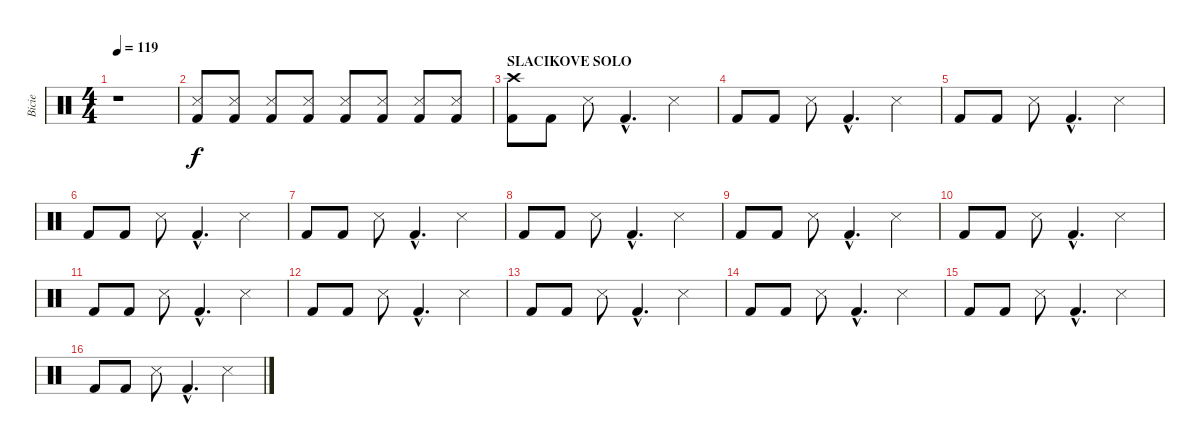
\track ("Bicie" "Bicie") {instrument percussion}
\staff {score}
\articulation defaults
\ts (4 4)
\tempo 119
\clef neutral
\ks c
r.1{dy f} |
("Metronome (hit)" "Kick (hit) 2").8 ("Metronome (hit)" "Kick (hit) 2").8 ("Metronome (hit)" "Kick (hit) 2").8 ("Metronome (hit)" "Kick (hit) 2").8 ("Metronome (hit)" "Kick (hit) 2").8 ("Metronome (hit)" "Kick (hit) 2").8 ("Metronome (hit)" "Kick (hit) 2").8 ("Metronome (hit)" "Kick (hit) 2").8 |
\section ("" "SLACIKOVE SOLO")
("Kick (hit) 2" "Crash high (hit)").8 "Kick (hit) 2".8 "Metronome (hit)".8 "Kick (hit) 2"{hac}.4{d} "Metronome (hit)".4 |
"Kick (hit) 2".8 "Kick (hit) 2".8 "Metronome (hit)".8 "Kick (hit) 2"{hac}.4{d} "Metronome (hit)".4 |
"Kick (hit) 2".8 "Kick (hit) 2".8 "Metronome (hit)".8 "Kick (hit) 2"{hac}.4{d} "Metronome (hit)".4 |
"Kick (hit) 2".8 "Kick (hit) 2".8 "Metronome (hit)".8 "Kick (hit) 2"{hac}.4{d} "Metronome (hit)".4 |
"Kick (hit) 2".8 "Kick (hit) 2".8 "Metronome (hit)".8 "Kick (hit) 2"{hac}.4{d} "Metronome (hit)".4 |
"Kick (hit) 2".8 "Kick (hit) 2".8 "Metronome (hit)".8 "Kick (hit) 2"{hac}.4{d} "Metronome (hit)".4 |
"Kick (hit) 2".8 "Kick (hit) 2".8 "Metronome (hit)".8 "Kick (hit) 2"{hac}.4{d} "Metronome (hit)".4 |
"Kick (hit) 2".8 "Kick (hit) 2".8 "Metronome (hit)".8 "Kick (hit) 2"{hac}.4{d} "Metronome (hit)".4 |
"Kick (hit) 2".8 "Kick (hit) 2".8 "Metronome (hit)".8 "Kick (hit) 2"{hac}.4{d} "Metronome (hit)".4 |
"Kick (hit) 2".8 "Kick (hit) 2".8 "Metronome (hit)".8 "Kick (hit) 2"{hac}.4{d} "Metronome (hit)".4 |
"Kick (hit) 2".8 "Kick (hit) 2".8 "Metronome (hit)".8 "Kick (hit) 2"{hac}.4{d} "Metronome (hit)".4 |
"Kick (hit) 2".8 "Kick (hit) 2".8 "Metronome (hit)".8 "Kick (hit) 2"{hac}.4{d} "Metronome (hit)".4 |
"Kick (hit) 2".8 "Kick (hit) 2".8 "Metronome (hit)".8 "Kick (hit) 2"{hac}.4{d} "Metronome (hit)".4 |
"Kick (hit) 2".8 "Kick (hit) 2".8 "Metronome (hit)".8 "Kick (hit) 2"{hac}.4{d} "Metronome (hit)".4
